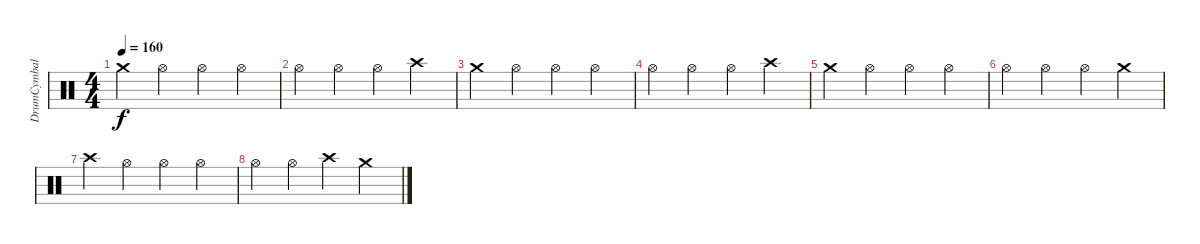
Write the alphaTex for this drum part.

\track ("DrumCymbal" "DrumCymbal") {instrument percussion}
\staff {score}
\articulation defaults
\ts (4 4)
\tempo 160
\clef neutral
\ks c "Crash medium (hit)".4{dy f} "Hi-Hat (open)".4 "Hi-Hat (open)".4 "Hi-Hat (open)".4
|
"Hi-Hat (open)".4 "Hi-Hat (open)".4 "Hi-Hat (open)".4 "Crash high (hit)".4 |
"Crash medium (hit)".4 "Hi-Hat (open)".4 "Hi-Hat (open)".4 "Hi-Hat (open)".4 |
"Hi-Hat (open)".4 "Hi-Hat (open)".4 "Hi-Hat (open)".4 "Crash high (hit)".4 |
"Crash medium (hit)".4 "Hi-Hat (open)".4 "Hi-Hat (open)".4 "Hi-Hat (open)".4 |
"Hi-Hat (open)".4 "Hi-Hat (open)".4 "Hi-Hat (open)".4 "Crash medium (hit)".4 |
"Crash high (hit)".4 "Hi-Hat (open)".4 "Hi-Hat (open)".4 "Hi-Hat (open)".4 |
"Hi-Hat (open)".4 "Hi-Hat (open)".4 "Crash high (hit)".4 "Crash medium (hit)".4
